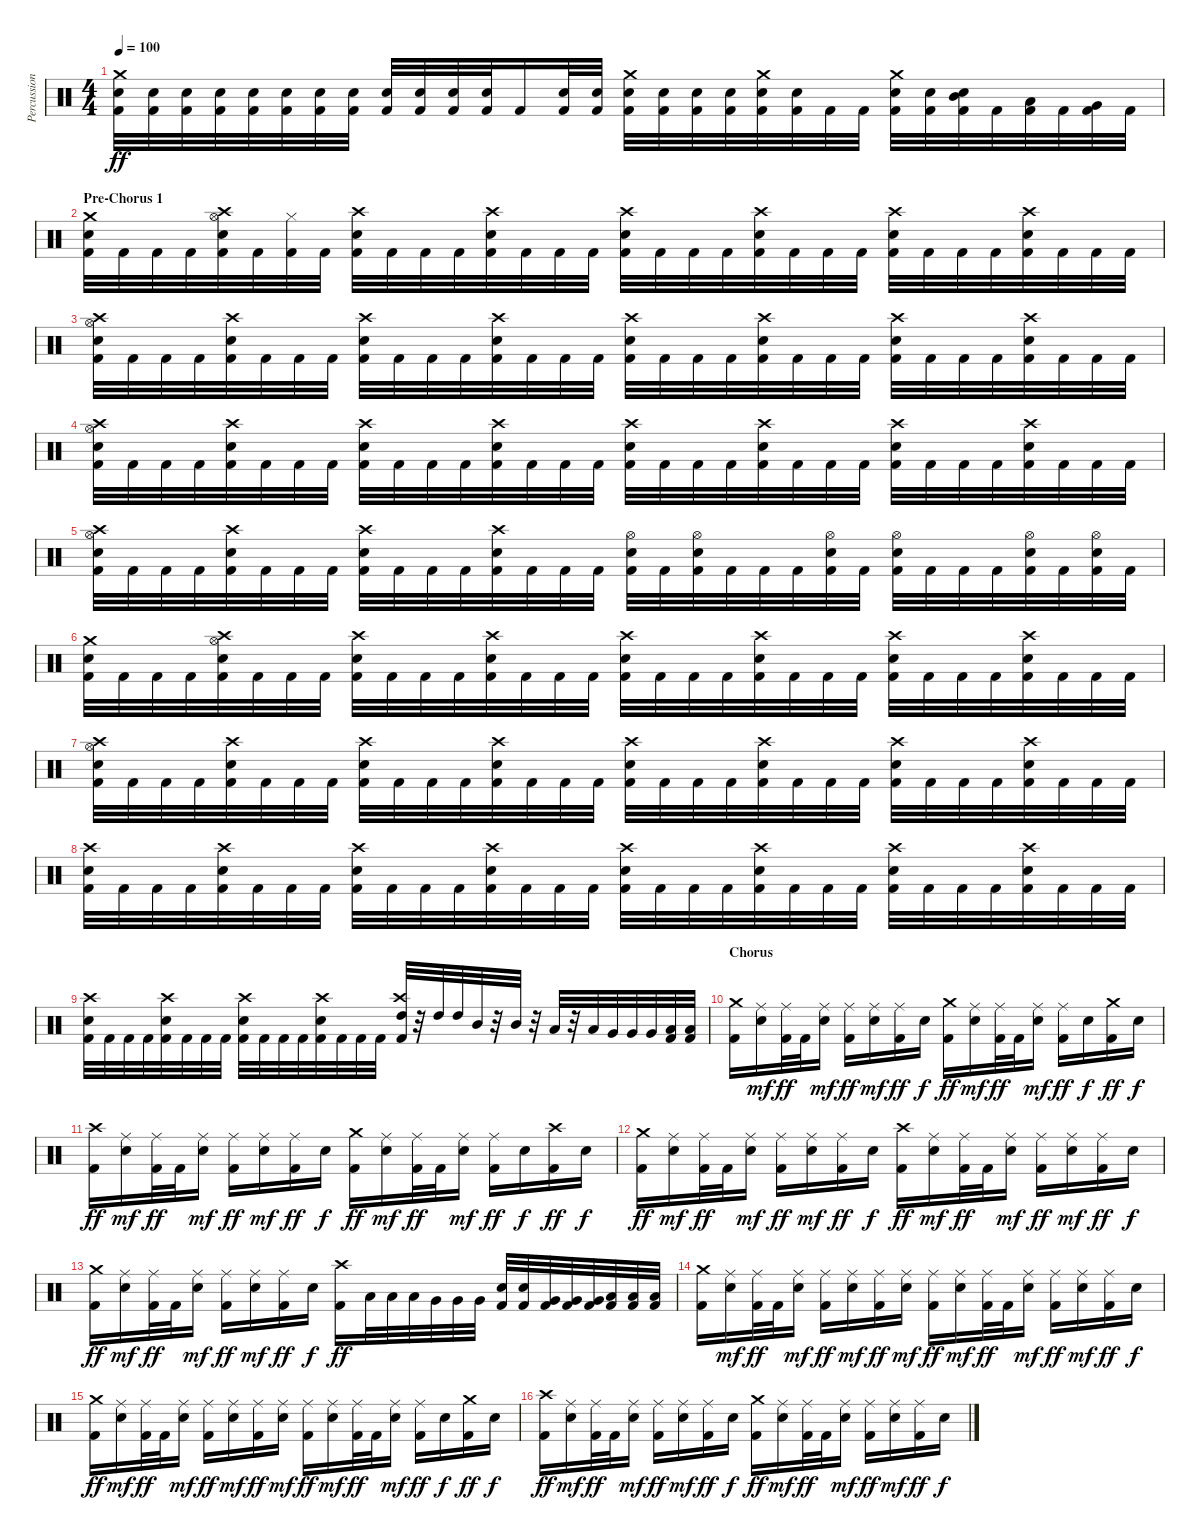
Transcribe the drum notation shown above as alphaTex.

\track ("Percussion" "Percussion") {instrument percussion}
\staff {score}
\articulation defaults
\ts (4 4)
\tempo 100
\clef neutral
\ks c
("Crash medium (hit)" "Snare (hit) 2" "Kick (hit) 2").32{dy ff} ("Snare (hit) 2" "Kick (hit) 2").32 ("Snare (hit) 2" "Kick (hit) 2").32 ("Snare (hit) 2" "Kick (hit) 2").32 ("Snare (hit) 2" "Kick (hit) 2").32 ("Snare (hit) 2" "Kick (hit) 2").32 ("Snare (hit) 2" "Kick (hit) 2").32 ("Snare (hit) 2" "Kick (hit) 2").32 ("Snare (hit) 2" "Kick (hit) 2").32 ("Snare (hit) 2" "Kick (hit) 2").32 ("Snare (hit) 2" "Kick (hit) 2").32 ("Snare (hit) 2" "Kick (hit) 2").32 "Kick (hit) 2".16 ("Snare (hit) 2" "Kick (hit) 2").32 ("Snare (hit) 2" "Kick (hit) 2").32 ("Crash medium (hit)" "Snare (hit) 2" "Kick (hit) 2").32 ("Snare (hit) 2" "Kick (hit) 2").32 ("Snare (hit) 2" "Kick (hit) 2").32 ("Snare (hit) 2" "Kick (hit) 2").32 ("Crash medium (hit)" "Snare (hit) 2" "Kick (hit) 2").32 ("Snare (hit) 2" "Kick (hit) 2").32 "Kick (hit) 2".32 "Kick (hit) 2".32 ("Crash medium (hit)" "Snare (hit) 2" "Kick (hit) 2").32 ("Snare (hit) 2" "Kick (hit) 2").32 ("Mid Tom (hit)" "Snare (hit) 2" "Kick (hit) 2").32 "Kick (hit) 2".32 ("Low Tom (hit)" "Kick (hit) 2").32 "Kick (hit) 2".32 ("Very Low Tom (hit)" "Kick (hit) 2").32 "Kick (hit) 2".32 |
\section ("" "Pre-Chorus 1")
("Crash medium (hit)" "Snare (hit) 2" "Kick (hit) 2").32 "Kick (hit) 2".32 "Kick (hit) 2".32 "Kick (hit) 2".32 ("Hi-Hat (open)" "Crash high (hit)" "Snare (hit) 2" "Kick (hit) 2").32 "Kick (hit) 2".32 ("Hi-Hat (closed)" "Kick (hit) 2").32 "Kick (hit) 2".32 ("Crash high (hit)" "Snare (hit) 2" "Kick (hit) 2").32 "Kick (hit) 2".32 "Kick (hit) 2".32 "Kick (hit) 2".32 ("Crash high (hit)" "Snare (hit) 2" "Kick (hit) 2").32 "Kick (hit) 2".32 "Kick (hit) 2".32 "Kick (hit) 2".32 ("Crash high (hit)" "Snare (hit) 2" "Kick (hit) 2").32 "Kick (hit) 2".32 "Kick (hit) 2".32 "Kick (hit) 2".32 ("Crash high (hit)" "Snare (hit) 2" "Kick (hit) 2").32 "Kick (hit) 2".32 "Kick (hit) 2".32 "Kick (hit) 2".32 ("Crash high (hit)" "Snare (hit) 2" "Kick (hit) 2").32 "Kick (hit) 2".32 "Kick (hit) 2".32 "Kick (hit) 2".32 ("Crash high (hit)" "Snare (hit) 2" "Kick (hit) 2").32 "Kick (hit) 2".32 "Kick (hit) 2".32 "Kick (hit) 2".32 |
("Hi-Hat (open)" "Crash high (hit)" "Snare (hit) 2" "Kick (hit) 2").32 "Kick (hit) 2".32 "Kick (hit) 2".32 "Kick (hit) 2".32 ("Crash high (hit)" "Snare (hit) 2" "Kick (hit) 2").32 "Kick (hit) 2".32 "Kick (hit) 2".32 "Kick (hit) 2".32 ("Crash high (hit)" "Snare (hit) 2" "Kick (hit) 2").32 "Kick (hit) 2".32 "Kick (hit) 2".32 "Kick (hit) 2".32 ("Crash high (hit)" "Snare (hit) 2" "Kick (hit) 2").32 "Kick (hit) 2".32 "Kick (hit) 2".32 "Kick (hit) 2".32 ("Crash high (hit)" "Snare (hit) 2" "Kick (hit) 2").32 "Kick (hit) 2".32 "Kick (hit) 2".32 "Kick (hit) 2".32 ("Crash high (hit)" "Snare (hit) 2" "Kick (hit) 2").32 "Kick (hit) 2".32 "Kick (hit) 2".32 "Kick (hit) 2".32 ("Crash high (hit)" "Snare (hit) 2" "Kick (hit) 2").32 "Kick (hit) 2".32 "Kick (hit) 2".32 "Kick (hit) 2".32 ("Crash high (hit)" "Snare (hit) 2" "Kick (hit) 2").32 "Kick (hit) 2".32 "Kick (hit) 2".32 "Kick (hit) 2".32 |
("Hi-Hat (open)" "Crash high (hit)" "Snare (hit) 2" "Kick (hit) 2").32 "Kick (hit) 2".32 "Kick (hit) 2".32 "Kick (hit) 2".32 ("Crash high (hit)" "Snare (hit) 2" "Kick (hit) 2").32 "Kick (hit) 2".32 "Kick (hit) 2".32 "Kick (hit) 2".32 ("Crash high (hit)" "Snare (hit) 2" "Kick (hit) 2").32 "Kick (hit) 2".32 "Kick (hit) 2".32 "Kick (hit) 2".32 ("Crash high (hit)" "Snare (hit) 2" "Kick (hit) 2").32 "Kick (hit) 2".32 "Kick (hit) 2".32 "Kick (hit) 2".32 ("Crash high (hit)" "Snare (hit) 2" "Kick (hit) 2").32 "Kick (hit) 2".32 "Kick (hit) 2".32 "Kick (hit) 2".32 ("Crash high (hit)" "Snare (hit) 2" "Kick (hit) 2").32 "Kick (hit) 2".32 "Kick (hit) 2".32 "Kick (hit) 2".32 ("Crash high (hit)" "Snare (hit) 2" "Kick (hit) 2").32 "Kick (hit) 2".32 "Kick (hit) 2".32 "Kick (hit) 2".32 ("Crash high (hit)" "Snare (hit) 2" "Kick (hit) 2").32 "Kick (hit) 2".32 "Kick (hit) 2".32 "Kick (hit) 2".32 |
("Hi-Hat (open)" "Crash high (hit)" "Snare (hit) 2" "Kick (hit) 2").32 "Kick (hit) 2".32 "Kick (hit) 2".32 "Kick (hit) 2".32 ("Crash high (hit)" "Snare (hit) 2" "Kick (hit) 2").32 "Kick (hit) 2".32 "Kick (hit) 2".32 "Kick (hit) 2".32 ("Crash high (hit)" "Snare (hit) 2" "Kick (hit) 2").32 "Kick (hit) 2".32 "Kick (hit) 2".32 "Kick (hit) 2".32 ("Crash high (hit)" "Snare (hit) 2" "Kick (hit) 2").32 "Kick (hit) 2".32 "Kick (hit) 2".32 "Kick (hit) 2".32 ("Hi-Hat (open)" "Snare (hit) 2" "Kick (hit) 2").32 "Kick (hit) 2".32 ("Hi-Hat (open)" "Snare (hit) 2" "Kick (hit) 2").32 "Kick (hit) 2".32 "Kick (hit) 2".32 "Kick (hit) 2".32 ("Hi-Hat (open)" "Snare (hit) 2" "Kick (hit) 2").32 "Kick (hit) 2".32 ("Hi-Hat (open)" "Snare (hit) 2" "Kick (hit) 2").32 "Kick (hit) 2".32 "Kick (hit) 2".32 "Kick (hit) 2".32 ("Hi-Hat (open)" "Snare (hit) 2" "Kick (hit) 2").32 "Kick (hit) 2".32 ("Hi-Hat (open)" "Snare (hit) 2" "Kick (hit) 2").32 "Kick (hit) 2".32 |
("Crash medium (hit)" "Snare (hit) 2" "Kick (hit) 2").32 "Kick (hit) 2".32 "Kick (hit) 2".32 "Kick (hit) 2".32 ("Hi-Hat (open)" "Crash high (hit)" "Snare (hit) 2" "Kick (hit) 2").32 "Kick (hit) 2".32 "Kick (hit) 2".32 "Kick (hit) 2".32 ("Crash high (hit)" "Snare (hit) 2" "Kick (hit) 2").32 "Kick (hit) 2".32 "Kick (hit) 2".32 "Kick (hit) 2".32 ("Crash high (hit)" "Snare (hit) 2" "Kick (hit) 2").32 "Kick (hit) 2".32 "Kick (hit) 2".32 "Kick (hit) 2".32 ("Crash high (hit)" "Snare (hit) 2" "Kick (hit) 2").32 "Kick (hit) 2".32 "Kick (hit) 2".32 "Kick (hit) 2".32 ("Crash high (hit)" "Snare (hit) 2" "Kick (hit) 2").32 "Kick (hit) 2".32 "Kick (hit) 2".32 "Kick (hit) 2".32 ("Crash high (hit)" "Snare (hit) 2" "Kick (hit) 2").32 "Kick (hit) 2".32 "Kick (hit) 2".32 "Kick (hit) 2".32 ("Crash high (hit)" "Snare (hit) 2" "Kick (hit) 2").32 "Kick (hit) 2".32 "Kick (hit) 2".32 "Kick (hit) 2".32 |
("Hi-Hat (open)" "Crash high (hit)" "Snare (hit) 2" "Kick (hit) 2").32 "Kick (hit) 2".32 "Kick (hit) 2".32 "Kick (hit) 2".32 ("Crash high (hit)" "Snare (hit) 2" "Kick (hit) 2").32 "Kick (hit) 2".32 "Kick (hit) 2".32 "Kick (hit) 2".32 ("Crash high (hit)" "Snare (hit) 2" "Kick (hit) 2").32 "Kick (hit) 2".32 "Kick (hit) 2".32 "Kick (hit) 2".32 ("Crash high (hit)" "Snare (hit) 2" "Kick (hit) 2").32 "Kick (hit) 2".32 "Kick (hit) 2".32 "Kick (hit) 2".32 ("Crash high (hit)" "Snare (hit) 2" "Kick (hit) 2").32 "Kick (hit) 2".32 "Kick (hit) 2".32 "Kick (hit) 2".32 ("Crash high (hit)" "Snare (hit) 2" "Kick (hit) 2").32 "Kick (hit) 2".32 "Kick (hit) 2".32 "Kick (hit) 2".32 ("Crash high (hit)" "Snare (hit) 2" "Kick (hit) 2").32 "Kick (hit) 2".32 "Kick (hit) 2".32 "Kick (hit) 2".32 ("Crash high (hit)" "Snare (hit) 2" "Kick (hit) 2").32 "Kick (hit) 2".32 "Kick (hit) 2".32 "Kick (hit) 2".32 |
("Crash high (hit)" "Snare (hit) 2" "Kick (hit) 2").32 "Kick (hit) 2".32 "Kick (hit) 2".32 "Kick (hit) 2".32 ("Crash high (hit)" "Snare (hit) 2" "Kick (hit) 2").32 "Kick (hit) 2".32 "Kick (hit) 2".32 "Kick (hit) 2".32 ("Crash high (hit)" "Snare (hit) 2" "Kick (hit) 2").32 "Kick (hit) 2".32 "Kick (hit) 2".32 "Kick (hit) 2".32 ("Crash high (hit)" "Snare (hit) 2" "Kick (hit) 2").32 "Kick (hit) 2".32 "Kick (hit) 2".32 "Kick (hit) 2".32 ("Crash high (hit)" "Snare (hit) 2" "Kick (hit) 2").32 "Kick (hit) 2".32 "Kick (hit) 2".32 "Kick (hit) 2".32 ("Crash high (hit)" "Snare (hit) 2" "Kick (hit) 2").32 "Kick (hit) 2".32 "Kick (hit) 2".32 "Kick (hit) 2".32 ("Crash high (hit)" "Snare (hit) 2" "Kick (hit) 2").32 "Kick (hit) 2".32 "Kick (hit) 2".32 "Kick (hit) 2".32 ("Crash high (hit)" "Snare (hit) 2" "Kick (hit) 2").32 "Kick (hit) 2".32 "Kick (hit) 2".32 "Kick (hit) 2".32 |
("Crash high (hit)" "Snare (hit) 2" "Kick (hit) 2").32 "Kick (hit) 2".32 "Kick (hit) 2".32 "Kick (hit) 2".32 ("Crash high (hit)" "Snare (hit) 2" "Kick (hit) 2").32 "Kick (hit) 2".32 "Kick (hit) 2".32 "Kick (hit) 2".32 ("Crash high (hit)" "Snare (hit) 2" "Kick (hit) 2").32 "Kick (hit) 2".32 "Kick (hit) 2".32 "Kick (hit) 2".32 ("Crash high (hit)" "Snare (hit) 2" "Kick (hit) 2").32 "Kick (hit) 2".32 "Kick (hit) 2".32 "Kick (hit) 2".32 ("Crash high (hit)" "High Tom (hit)" "Kick (hit) 2").32 r.32 "High Tom (hit)".32 "High Tom (hit)".32 "Mid Tom (hit)".32 r.32 "Mid Tom (hit)".32 r.32 "Low Tom (hit)".32 r.32 "Low Tom (hit)".32 "Very Low Tom (hit)".32 "Very Low Tom (hit)".32 "Very Low Tom (hit)".32 ("Low Floor Tom (hit)" "Kick (hit) 2").32 ("Low Floor Tom (hit)" "Kick (hit) 2").32 |
\section ("" "Chorus")
("Crash medium (hit)" "Kick (hit) 2").16 ("Ride (middle)" "Snare (hit) 2").16{dy mf} ("Ride (middle)" "Kick (hit) 2").32{dy ff} "Kick (hit) 2".32 ("Ride (middle)" "Snare (hit) 2").16{dy mf} ("Ride (middle)" "Kick (hit) 2").16{dy ff} ("Ride (middle)" "Snare (hit) 2").16{dy mf} ("Ride (middle)" "Kick (hit) 2").16{dy ff} "Snare (hit) 2".16{dy f} ("Crash medium (hit)" "Kick (hit) 2").16{dy ff} ("Ride (middle)" "Snare (hit) 2").16{dy mf} ("Ride (middle)" "Kick (hit) 2").32{dy ff} "Kick (hit) 2".32 ("Ride (middle)" "Snare (hit) 2").16{dy mf} ("Ride (middle)" "Kick (hit) 2").16{dy ff} "Snare (hit) 2".16{dy f} ("Crash medium (hit)" "Kick (hit) 2").16{dy ff} "Snare (hit) 2".16{dy f} |
("Crash high (hit)" "Kick (hit) 2").16{dy ff} ("Ride (middle)" "Snare (hit) 2").16{dy mf} ("Ride (middle)" "Kick (hit) 2").32{dy ff} "Kick (hit) 2".32 ("Ride (middle)" "Snare (hit) 2").16{dy mf} ("Ride (middle)" "Kick (hit) 2").16{dy ff} ("Ride (middle)" "Snare (hit) 2").16{dy mf} ("Ride (middle)" "Kick (hit) 2").16{dy ff} "Snare (hit) 2".16{dy f} ("Crash medium (hit)" "Kick (hit) 2").16{dy ff} ("Ride (middle)" "Snare (hit) 2").16{dy mf} ("Ride (middle)" "Kick (hit) 2").32{dy ff} "Kick (hit) 2".32 ("Ride (middle)" "Snare (hit) 2").16{dy mf} ("Ride (middle)" "Kick (hit) 2").16{dy ff} "Snare (hit) 2".16{dy f} ("Crash high (hit)" "Kick (hit) 2").16{dy ff} "Snare (hit) 2".16{dy f} |
("Crash medium (hit)" "Kick (hit) 2").16{dy ff} ("Ride (middle)" "Snare (hit) 2").16{dy mf} ("Ride (middle)" "Kick (hit) 2").32{dy ff} "Kick (hit) 2".32 ("Ride (middle)" "Snare (hit) 2").16{dy mf} ("Ride (middle)" "Kick (hit) 2").16{dy ff} ("Ride (middle)" "Snare (hit) 2").16{dy mf} ("Ride (middle)" "Kick (hit) 2").16{dy ff} "Snare (hit) 2".16{dy f} ("Crash high (hit)" "Kick (hit) 2").16{dy ff} ("Ride (middle)" "Snare (hit) 2").16{dy mf} ("Ride (middle)" "Kick (hit) 2").32{dy ff} "Kick (hit) 2".32 ("Ride (middle)" "Snare (hit) 2").16{dy mf} ("Ride (middle)" "Kick (hit) 2").16{dy ff} ("Ride (middle)" "Snare (hit) 2").16{dy mf} ("Ride (middle)" "Kick (hit) 2").16{dy ff} "Snare (hit) 2".16{dy f} |
("Crash medium (hit)" "Kick (hit) 2").16{dy ff} ("Ride (middle)" "Snare (hit) 2").16{dy mf} ("Ride (middle)" "Kick (hit) 2").32{dy ff} "Kick (hit) 2".32 ("Ride (middle)" "Snare (hit) 2").16{dy mf} ("Ride (middle)" "Kick (hit) 2").16{dy ff} ("Ride (middle)" "Snare (hit) 2").16{dy mf} ("Ride (middle)" "Kick (hit) 2").16{dy ff} "Snare (hit) 2".16{dy f} ("Crash high (hit)" "Kick (hit) 2").16{dy ff} "Low Tom (hit)".32 "Low Tom (hit)".32 "Low Tom (hit)".32 "Very Low Tom (hit)".32 "Very Low Tom (hit)".32 "Very Low Tom (hit)".32 ("Snare (hit) 2" "Kick (hit) 2").32 ("Snare (hit) 2" "Kick (hit) 2").32 ("Very Low Tom (hit)" "Kick (hit) 2").32 ("Very Low Tom (hit)" "Kick (hit) 2").32 ("Very Low Tom (hit)" "Kick (hit) 2").32 ("Low Floor Tom (hit)" "Kick (hit) 2").32 ("Low Floor Tom (hit)" "Kick (hit) 2").32 ("Low Floor Tom (hit)" "Kick (hit) 2").32 |
("Crash medium (hit)" "Kick (hit) 2").16 ("Ride (middle)" "Snare (hit) 2").16{dy mf} ("Ride (middle)" "Kick (hit) 2").32{dy ff} "Kick (hit) 2".32 ("Ride (middle)" "Snare (hit) 2").16{dy mf} ("Ride (middle)" "Kick (hit) 2").16{dy ff} ("Ride (middle)" "Snare (hit) 2").16{dy mf} ("Ride (middle)" "Kick (hit) 2").16{dy ff} ("Ride (middle)" "Snare (hit) 2").16{dy mf} ("Ride (middle)" "Kick (hit) 2").16{dy ff} ("Ride (middle)" "Snare (hit) 2").16{dy mf} ("Ride (middle)" "Kick (hit) 2").32{dy ff} "Kick (hit) 2".32 ("Ride (middle)" "Snare (hit) 2").16{dy mf} ("Ride (middle)" "Kick (hit) 2").16{dy ff} ("Ride (middle)" "Snare (hit) 2").16{dy mf} ("Ride (middle)" "Kick (hit) 2").16{dy ff} "Snare (hit) 2".16{dy f} |
("Crash medium (hit)" "Kick (hit) 2").16{dy ff} ("Ride (middle)" "Snare (hit) 2").16{dy mf} ("Ride (middle)" "Kick (hit) 2").32{dy ff} "Kick (hit) 2".32 ("Ride (middle)" "Snare (hit) 2").16{dy mf} ("Ride (middle)" "Kick (hit) 2").16{dy ff} ("Ride (middle)" "Snare (hit) 2").16{dy mf} ("Ride (middle)" "Kick (hit) 2").16{dy ff} ("Ride (middle)" "Snare (hit) 2").16{dy mf} ("Ride (middle)" "Kick (hit) 2").16{dy ff} ("Ride (middle)" "Snare (hit) 2").16{dy mf} ("Ride (middle)" "Kick (hit) 2").32{dy ff} "Kick (hit) 2".32 ("Ride (middle)" "Snare (hit) 2").16{dy mf} ("Ride (middle)" "Kick (hit) 2").16{dy ff} "Snare (hit) 2".16{dy f} ("Crash medium (hit)" "Kick (hit) 2").16{dy ff} "Snare (hit) 2".16{dy f} |
("Crash high (hit)" "Kick (hit) 2").16{dy ff} ("Ride (middle)" "Snare (hit) 2").16{dy mf} ("Ride (middle)" "Kick (hit) 2").32{dy ff} "Kick (hit) 2".32 ("Ride (middle)" "Snare (hit) 2").16{dy mf} ("Ride (middle)" "Kick (hit) 2").16{dy ff} ("Ride (middle)" "Snare (hit) 2").16{dy mf} ("Ride (middle)" "Kick (hit) 2").16{dy ff} "Snare (hit) 2".16{dy f} ("Crash medium (hit)" "Kick (hit) 2").16{dy ff} ("Ride (middle)" "Snare (hit) 2").16{dy mf} ("Ride (middle)" "Kick (hit) 2").32{dy ff} "Kick (hit) 2".32 ("Ride (middle)" "Snare (hit) 2").16{dy mf} ("Ride (middle)" "Kick (hit) 2").16{dy ff} ("Ride (middle)" "Snare (hit) 2").16{dy mf} ("Ride (middle)" "Kick (hit) 2").16{dy ff} "Snare (hit) 2".16{dy f}
